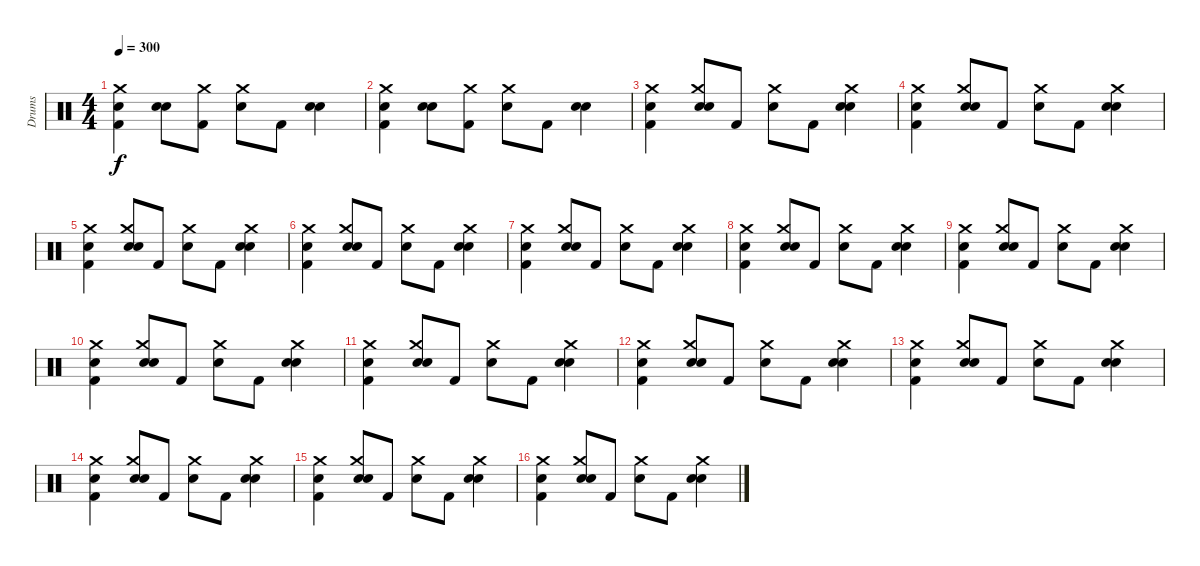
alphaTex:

\track ("Drums" "Drums") {instrument percussion}
\staff {score}
\articulation defaults
\ts (4 4)
\tempo 300
\clef neutral
\ks c
("Snare (hit)" "Kick (hit) 2" "Crash medium (hit)").4{dy f} ("Snare (hit)" "Electric Snare (hit)").8 ("Kick (hit) 2" "Crash medium (hit)").8 ("Snare (hit)" "Crash medium (hit)").8 "Kick (hit) 2".8 ("Snare (hit)" "Electric Snare (hit)").4 |
("Snare (hit)" "Kick (hit) 2" "Crash medium (hit)").4 ("Snare (hit)" "Electric Snare (hit)").8 ("Kick (hit) 2" "Crash medium (hit)").8 ("Snare (hit)" "Crash medium (hit)").8 "Kick (hit) 2".8 ("Snare (hit)" "Electric Snare (hit)").4 |
("Snare (hit)" "Kick (hit) 2" "Crash medium (hit)").4 ("Snare (hit)" "Crash medium (hit)" "Electric Snare (hit)").8 "Kick (hit) 2".8 ("Snare (hit)" "Crash medium (hit)").8 "Kick (hit) 2".8 ("Snare (hit)" "Crash medium (hit)" "Electric Snare (hit)").4 |
("Snare (hit)" "Kick (hit) 2" "Crash medium (hit)").4 ("Snare (hit)" "Crash medium (hit)" "Electric Snare (hit)").8 "Kick (hit) 2".8 ("Snare (hit)" "Crash medium (hit)").8 "Kick (hit) 2".8 ("Snare (hit)" "Crash medium (hit)" "Electric Snare (hit)").4 |
("Snare (hit)" "Kick (hit) 2" "Crash medium (hit)").4 ("Snare (hit)" "Crash medium (hit)" "Electric Snare (hit)").8 "Kick (hit) 2".8 ("Snare (hit)" "Crash medium (hit)").8 "Kick (hit) 2".8 ("Snare (hit)" "Crash medium (hit)" "Electric Snare (hit)").4 |
("Snare (hit)" "Kick (hit) 2" "Crash medium (hit)").4 ("Snare (hit)" "Crash medium (hit)" "Electric Snare (hit)").8 "Kick (hit) 2".8 ("Snare (hit)" "Crash medium (hit)").8 "Kick (hit) 2".8 ("Snare (hit)" "Crash medium (hit)" "Electric Snare (hit)").4 |
("Snare (hit)" "Kick (hit) 2" "Crash medium (hit)").4 ("Snare (hit)" "Crash medium (hit)" "Electric Snare (hit)").8 "Kick (hit) 2".8 ("Snare (hit)" "Crash medium (hit)").8 "Kick (hit) 2".8 ("Snare (hit)" "Crash medium (hit)" "Electric Snare (hit)").4 |
("Snare (hit)" "Kick (hit) 2" "Crash medium (hit)").4 ("Snare (hit)" "Crash medium (hit)" "Electric Snare (hit)").8 "Kick (hit) 2".8 ("Snare (hit)" "Crash medium (hit)").8 "Kick (hit) 2".8 ("Snare (hit)" "Crash medium (hit)" "Electric Snare (hit)").4 |
("Snare (hit)" "Kick (hit) 2" "Crash medium (hit)").4 ("Snare (hit)" "Crash medium (hit)" "Electric Snare (hit)").8 "Kick (hit) 2".8 ("Snare (hit)" "Crash medium (hit)").8 "Kick (hit) 2".8 ("Snare (hit)" "Crash medium (hit)" "Electric Snare (hit)").4 |
("Snare (hit)" "Kick (hit) 2" "Crash medium (hit)").4 ("Snare (hit)" "Crash medium (hit)" "Electric Snare (hit)").8 "Kick (hit) 2".8 ("Snare (hit)" "Crash medium (hit)").8 "Kick (hit) 2".8 ("Snare (hit)" "Crash medium (hit)" "Electric Snare (hit)").4 |
("Snare (hit)" "Kick (hit) 2" "Crash medium (hit)").4 ("Snare (hit)" "Crash medium (hit)" "Electric Snare (hit)").8 "Kick (hit) 2".8 ("Snare (hit)" "Crash medium (hit)").8 "Kick (hit) 2".8 ("Snare (hit)" "Crash medium (hit)" "Electric Snare (hit)").4 |
("Snare (hit)" "Kick (hit) 2" "Crash medium (hit)").4 ("Snare (hit)" "Crash medium (hit)" "Electric Snare (hit)").8 "Kick (hit) 2".8 ("Snare (hit)" "Crash medium (hit)").8 "Kick (hit) 2".8 ("Snare (hit)" "Crash medium (hit)" "Electric Snare (hit)").4 |
("Snare (hit)" "Kick (hit) 2" "Crash medium (hit)").4 ("Snare (hit)" "Crash medium (hit)" "Electric Snare (hit)").8 "Kick (hit) 2".8 ("Snare (hit)" "Crash medium (hit)").8 "Kick (hit) 2".8 ("Snare (hit)" "Crash medium (hit)" "Electric Snare (hit)").4 |
("Snare (hit)" "Kick (hit) 2" "Crash medium (hit)").4 ("Snare (hit)" "Crash medium (hit)" "Electric Snare (hit)").8 "Kick (hit) 2".8 ("Snare (hit)" "Crash medium (hit)").8 "Kick (hit) 2".8 ("Snare (hit)" "Crash medium (hit)" "Electric Snare (hit)").4 |
("Snare (hit)" "Crash medium (hit)" "Kick (hit) 2").4 ("Snare (hit)" "Crash medium (hit)" "Electric Snare (hit)").8 "Kick (hit) 2".8 ("Snare (hit)" "Crash medium (hit)").8 "Kick (hit) 2".8 ("Snare (hit)" "Crash medium (hit)" "Electric Snare (hit)").4 |
("Snare (hit)" "Crash medium (hit)" "Kick (hit) 2").4 ("Snare (hit)" "Crash medium (hit)" "Electric Snare (hit)").8 "Kick (hit) 2".8 ("Snare (hit)" "Crash medium (hit)").8 "Kick (hit) 2".8 ("Snare (hit)" "Crash medium (hit)" "Electric Snare (hit)").4
